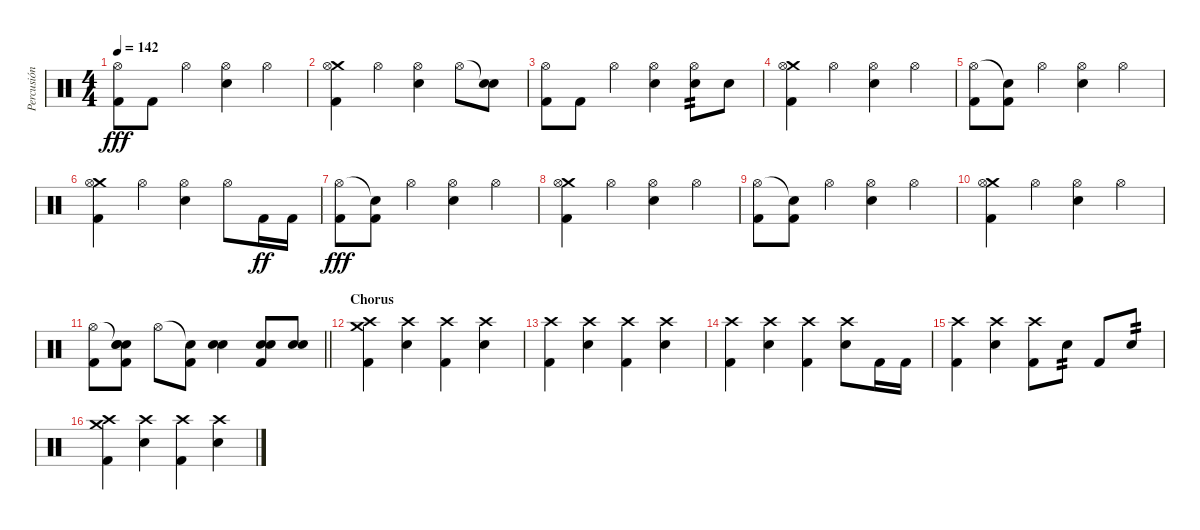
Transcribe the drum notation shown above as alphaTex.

\track ("Percusión" "Percusión") {instrument percussion}
\staff {score}
\articulation defaults
\ts (4 4)
\tempo 142
\clef neutral
\ks c
("Hi-Hat (open)" "Kick (hit) 2").8{dy fff} "Kick (hit) 2".8 "Hi-Hat (open)".4 ("Hi-Hat (open)" "Electric Snare (hit)").4 "Hi-Hat (open)".4 |
("Crash medium (hit)" "Hi-Hat (open)" "Kick (hit) 2").4 "Hi-Hat (open)".4 ("Hi-Hat (open)" "Electric Snare (hit)").4 "Hi-Hat (open)".8 ("Snare (hit)"{t} "Electric Snare (hit)").8 |
("Hi-Hat (open)" "Kick (hit) 2").8 "Kick (hit) 2".8 "Hi-Hat (open)".4 ("Hi-Hat (open)" "Electric Snare (hit)").4 ("Hi-Hat (open)" "Electric Snare (hit)").8{tp 2} "Electric Snare (hit)".8 |
("Crash medium (hit)" "Hi-Hat (open)" "Kick (hit) 2").4 "Hi-Hat (open)".4 ("Hi-Hat (open)" "Electric Snare (hit)").4 "Hi-Hat (open)".4 |
("Hi-Hat (open)" "Kick (hit) 2").8 ("Snare (hit)"{t} "Kick (hit) 2").8 "Hi-Hat (open)".4 ("Hi-Hat (open)" "Electric Snare (hit)").4 "Hi-Hat (open)".4 |
("Crash medium (hit)" "Hi-Hat (open)" "Kick (hit) 2").4 "Hi-Hat (open)".4 ("Hi-Hat (open)" "Electric Snare (hit)").4 "Hi-Hat (open)".8 "Kick (hit) 2".16{dy ff} "Kick (hit) 2".16 |
("Hi-Hat (open)" "Kick (hit) 2").8{dy fff} ("Snare (hit)"{t} "Kick (hit) 2").8 "Hi-Hat (open)".4 ("Hi-Hat (open)" "Electric Snare (hit)").4 "Hi-Hat (open)".4 |
("Crash medium (hit)" "Hi-Hat (open)" "Kick (hit) 2").4 "Hi-Hat (open)".4 ("Hi-Hat (open)" "Electric Snare (hit)").4 "Hi-Hat (open)".4 |
("Hi-Hat (open)" "Kick (hit) 2").8 ("Snare (hit)"{t} "Kick (hit) 2").8 "Hi-Hat (open)".4 ("Hi-Hat (open)" "Electric Snare (hit)").4 "Hi-Hat (open)".4 |
("Crash medium (hit)" "Hi-Hat (open)" "Kick (hit) 2").4 "Hi-Hat (open)".4 ("Hi-Hat (open)" "Electric Snare (hit)").4 "Hi-Hat (open)".4 |
\barLineRight lightlight
("Hi-Hat (open)" "Kick (hit) 2").8 ("Snare (hit)"{t} "Snare (hit) 2" "Electric Snare (hit)" "Kick (hit) 2").8 "Hi-Hat (open)".8 ("Snare (hit)"{t} "Kick (hit) 2").8 ("Snare (hit) 2" "Electric Snare (hit)").4 ("Snare (hit) 2" "Electric Snare (hit)" "Kick (hit) 2").8 ("Snare (hit) 2" "Electric Snare (hit)").8 |
\section ("" "Chorus")
("Crash medium (hit)" "Crash high (hit)" "Kick (hit) 2").4 ("Crash high (hit)" "Electric Snare (hit)").4 ("Crash high (hit)" "Kick (hit) 2").4 ("Crash high (hit)" "Electric Snare (hit)").4 |
("Crash high (hit)" "Kick (hit) 2").4 ("Crash high (hit)" "Electric Snare (hit)").4 ("Crash high (hit)" "Kick (hit) 2").4 ("Crash high (hit)" "Electric Snare (hit)").4 |
("Crash high (hit)" "Kick (hit) 2").4 ("Crash high (hit)" "Electric Snare (hit)").4 ("Crash high (hit)" "Kick (hit) 2").4 ("Crash high (hit)" "Electric Snare (hit)").8 "Kick (hit) 2".16 "Kick (hit) 2".16 |
("Crash high (hit)" "Kick (hit) 2").4 ("Crash high (hit)" "Electric Snare (hit)").4 ("Crash high (hit)" "Kick (hit) 2").8 "Electric Snare (hit)".8{tp 2} "Kick (hit) 2".8 "Electric Snare (hit)".8{tp 2} |
("Crash medium (hit)" "Crash high (hit)" "Kick (hit) 2").4 ("Crash high (hit)" "Electric Snare (hit)").4 ("Crash high (hit)" "Kick (hit) 2").4 ("Crash high (hit)" "Electric Snare (hit)").4
